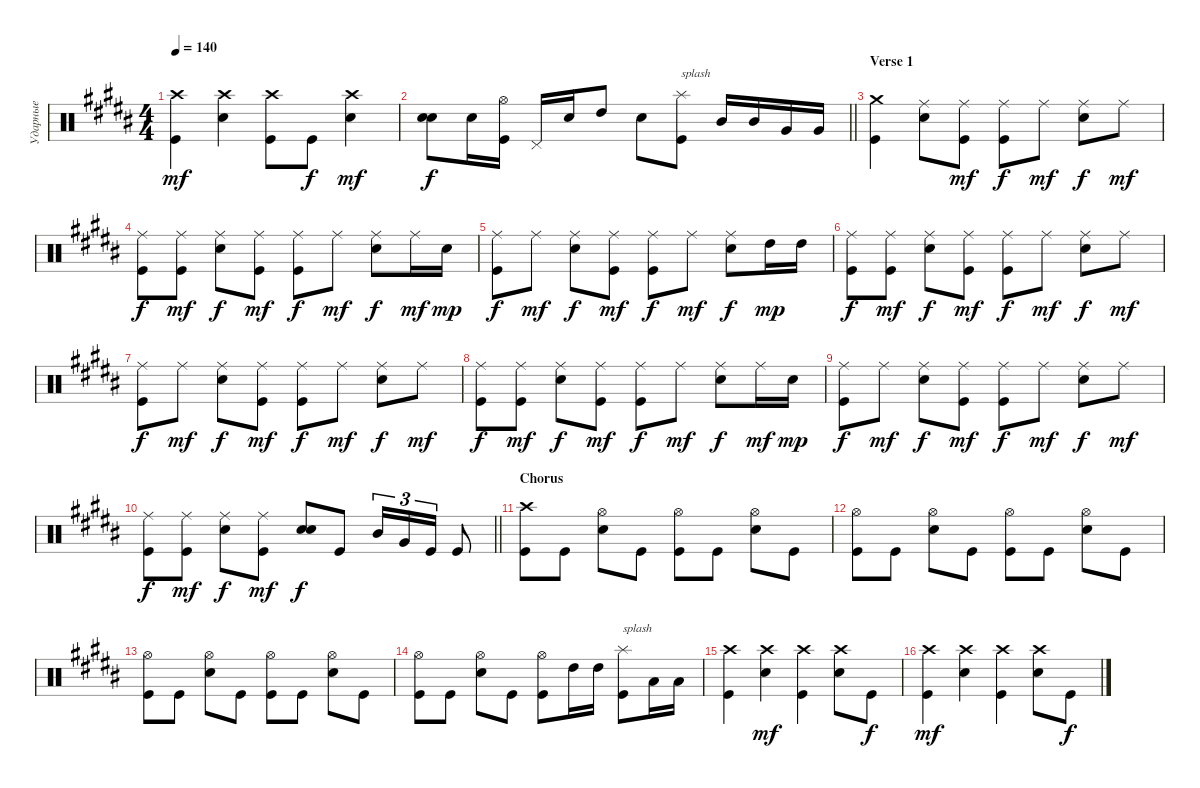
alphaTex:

\track ("Ударные" "Ударные") {instrument percussion}
\staff {score}
\articulation defaults
\ts (4 4)
\tempo 140
\clef neutral
\ks g#minor
("Kick (hit)" "Crash high (hit)").4{dy mf} ("Snare (hit) 2" "Crash high (hit)").4 ("Kick (hit)" "Crash high (hit)").8 "Kick (hit)".8{dy f} ("Snare (hit) 2" "Crash high (hit)").4{dy mf} |
\barLineRight lightlight
("Snare (hit) 2" "Snare (hit) 2").8{bd 240 dy f} "Snare (hit) 2".16 ("Kick (hit)" "Hi-Hat (open)").16 "Pedal Hi-Hat (hit)".16 "Snare (hit) 2".16 "High Tom (hit)".8 "Snare (hit) 2".8 ("Kick (hit)" "Splash (hit)").8{txt "splash"} "Mid Tom (hit)".16 "Mid Tom (hit)".16 "Very Low Tom (hit)".16 "Very Low Tom (hit)".16 |
\section ("" "Verse 1")
("Kick (hit)" "Crash medium (hit)").4 ("Snare (hit) 2" "Ride (middle)").8 ("Ride (middle)" "Kick (hit)").8{dy mf} ("Kick (hit)" "Ride (middle)").8{dy f} "Ride (middle)".8{dy mf} ("Snare (hit) 2" "Ride (middle)").8{dy f} "Ride (middle)".8{dy mf} |
("Kick (hit)" "Ride (middle)").8{dy f} ("Kick (hit)" "Ride (middle)").8{dy mf} ("Ride (middle)" "Snare (hit) 2").8{dy f} ("Ride (middle)" "Kick (hit)").8{dy mf} ("Ride (middle)" "Kick (hit)").8{dy f} "Ride (middle)".8{dy mf} ("Ride (middle)" "Snare (hit) 2").8{dy f} "Ride (middle)".16{dy mf} "Snare (hit) 2".16{dy mp} |
("Kick (hit)" "Ride (middle)").8{dy f} "Ride (middle)".8{dy mf} ("Ride (middle)" "Snare (hit) 2").8{dy f} ("Ride (middle)" "Kick (hit)").8{dy mf} ("Ride (middle)" "Kick (hit)").8{dy f} "Ride (middle)".8{dy mf} ("Ride (middle)" "Snare (hit) 2").8{dy f} "High Tom (hit)".16{dy mp} "High Tom (hit)".16 |
("Kick (hit)" "Ride (middle)").8{dy f} ("Kick (hit)" "Ride (middle)").8{dy mf} ("Ride (middle)" "Snare (hit) 2").8{dy f} ("Ride (middle)" "Kick (hit)").8{dy mf} ("Ride (middle)" "Kick (hit)").8{dy f} "Ride (middle)".8{dy mf} ("Ride (middle)" "Snare (hit) 2").8{dy f} "Ride (middle)".8{dy mf} |
("Kick (hit)" "Ride (middle)").8{dy f} "Ride (middle)".8{dy mf} ("Ride (middle)" "Snare (hit) 2").8{dy f} ("Ride (middle)" "Kick (hit)").8{dy mf} ("Ride (middle)" "Kick (hit)").8{dy f} "Ride (middle)".8{dy mf} ("Ride (middle)" "Snare (hit) 2").8{dy f} "Ride (middle)".8{dy mf} |
("Kick (hit)" "Ride (middle)").8{dy f} ("Kick (hit)" "Ride (middle)").8{dy mf} ("Ride (middle)" "Snare (hit) 2").8{dy f} ("Ride (middle)" "Kick (hit)").8{dy mf} ("Ride (middle)" "Kick (hit)").8{dy f} "Ride (middle)".8{dy mf} ("Ride (middle)" "Snare (hit) 2").8{dy f} "Ride (middle)".16{dy mf} "Snare (hit) 2".16{dy mp} |
("Kick (hit)" "Ride (middle)").8{dy f} "Ride (middle)".8{dy mf} ("Ride (middle)" "Snare (hit) 2").8{dy f} ("Ride (middle)" "Kick (hit)").8{dy mf} ("Ride (middle)" "Kick (hit)").8{dy f} "Ride (middle)".8{dy mf} ("Ride (middle)" "Snare (hit) 2").8{dy f} "Ride (middle)".8{dy mf} |
\barLineRight lightlight
("Kick (hit)" "Ride (middle)").8{dy f} ("Kick (hit)" "Ride (middle)").8{dy mf} ("Ride (middle)" "Snare (hit) 2").8{dy f} ("Ride (middle)" "Kick (hit)").8{dy mf} ("Snare (hit) 2" "Snare (hit) 2").8{bd 240 dy f} "Kick (hit)".8 "Mid Tom (hit)".16{tu (3 2)} "Very Low Tom (hit)".16{tu (3 2)} "Kick (hit)".16{tu (3 2)} "Kick (hit)".8 |
\section ("" "Chorus")
("Kick (hit)" "Crash high (hit)").8 "Kick (hit)".8 ("Snare (hit) 2" "Hi-Hat (open)").8 "Kick (hit)".8 ("Kick (hit)" "Hi-Hat (open)").8 "Kick (hit)".8 ("Snare (hit) 2" "Hi-Hat (open)").8 "Kick (hit)".8 |
("Kick (hit)" "Hi-Hat (open)").8 "Kick (hit)".8 ("Snare (hit) 2" "Hi-Hat (open)").8 "Kick (hit)".8 ("Kick (hit)" "Hi-Hat (open)").8 "Kick (hit)".8 ("Snare (hit) 2" "Hi-Hat (open)").8 "Kick (hit)".8 |
("Kick (hit)" "Hi-Hat (open)").8 "Kick (hit)".8 ("Snare (hit) 2" "Hi-Hat (open)").8 "Kick (hit)".8 ("Kick (hit)" "Hi-Hat (open)").8 "Kick (hit)".8 ("Snare (hit) 2" "Hi-Hat (open)").8 "Kick (hit)".8 |
("Kick (hit)" "Hi-Hat (open)").8 "Kick (hit)".8 ("Snare (hit) 2" "Hi-Hat (open)").8 "Kick (hit)".8 ("Kick (hit)" "Hi-Hat (open)").8 "High Tom (hit)".16 "High Tom (hit)".16 ("Kick (hit)" "Splash (hit)").8{txt "splash"} "Low Tom (hit)".16 "Low Tom (hit)".16 |
("Kick (hit)" "Crash high (hit)").4 ("Snare (hit) 2" "Crash high (hit)").4{dy mf} ("Kick (hit)" "Crash high (hit)").4 ("Snare (hit) 2" "Crash high (hit)").8 "Kick (hit)".8{dy f} |
("Kick (hit)" "Crash high (hit)").4{dy mf} ("Snare (hit) 2" "Crash high (hit)").4 ("Kick (hit)" "Crash high (hit)").4 ("Snare (hit) 2" "Crash high (hit)").8 "Kick (hit)".8{dy f}
